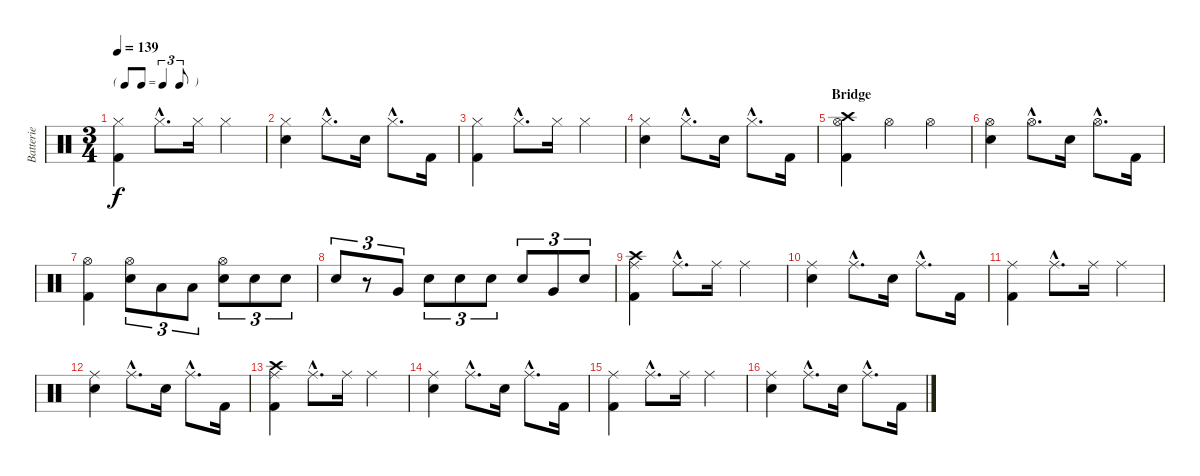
\track ("Batterie" "Batterie") {instrument percussion}
\staff {score}
\articulation defaults
\ts (3 4)
\tf triplet8th
\tempo 139
\clef neutral
\ks c
("Hi-Hat (closed)" "Kick (hit) 2").4{dy f} "Hi-Hat (closed)"{hac}.8{d} "Hi-Hat (closed)".16 "Hi-Hat (closed)".4 |
("Hi-Hat (closed)" "Snare (hit) 2").4 "Hi-Hat (closed)"{hac}.8{d} "Snare (hit) 2".16 "Hi-Hat (closed)"{hac}.8{d} "Kick (hit) 2".16 |
("Hi-Hat (closed)" "Kick (hit) 2").4 "Hi-Hat (closed)"{hac}.8{d} "Hi-Hat (closed)".16 "Hi-Hat (closed)".4 |
("Hi-Hat (closed)" "Snare (hit) 2").4 "Hi-Hat (closed)"{hac}.8{d} "Snare (hit) 2".16 "Hi-Hat (closed)"{hac}.8{d} "Kick (hit) 2".16 |
\section ("" "Bridge")
("Crash high (hit)" "Hi-Hat (open)" "Kick (hit) 2").4 "Hi-Hat (open)".4 "Hi-Hat (open)".4 |
("Hi-Hat (open)" "Snare (hit) 2").4 "Hi-Hat (open)"{hac}.8{d} "Snare (hit) 2".16 "Hi-Hat (open)"{hac}.8{d} "Kick (hit) 2".16 |
("Hi-Hat (open)" "Kick (hit) 2").4 ("Hi-Hat (open)" "Snare (hit) 2").8{tu (3 2)} "Low Floor Tom (hit)".8{tu (3 2)} "Low Tom (hit)".8{tu (3 2)} ("Hi-Hat (open)" "Snare (hit) 2").8{tu (3 2)} "Snare (hit) 2".8{tu (3 2)} "Snare (hit) 2".8{tu (3 2)} |
"Snare (hit) 2".8{tu (3 2)} r.8{tu (3 2)} "Very Low Tom (hit)".8{tu (3 2)} "Snare (hit) 2".8{tu (3 2)} "Electric Snare (hit)".8{tu (3 2)} "Snare (hit) 2".8{tu (3 2)} "Snare (hit) 2".8{tu (3 2)} "Very Low Tom (hit)".8{tu (3 2)} "Snare (hit) 2".8{tu (3 2)} |
("Crash high (hit)" "Ride (middle)" "Kick (hit) 2").4 "Ride (middle)"{hac}.8{d} "Ride (middle)".16 "Ride (middle)".4 |
("Ride (middle)" "Snare (hit) 2").4 "Ride (middle)"{hac}.8{d} "Snare (hit) 2".16 "Ride (middle)"{hac}.8{d} "Kick (hit) 2".16 |
("Ride (middle)" "Kick (hit) 2").4 "Ride (middle)"{hac}.8{d} "Ride (middle)".16 "Ride (middle)".4 |
("Ride (middle)" "Snare (hit) 2").4 "Ride (middle)"{hac}.8{d} "Snare (hit) 2".16 "Ride (middle)"{hac}.8{d} "Kick (hit) 2".16 |
("Crash high (hit)" "Ride (middle)" "Kick (hit) 2").4 "Ride (middle)"{hac}.8{d} "Ride (middle)".16 "Ride (middle)".4 |
("Ride (middle)" "Snare (hit) 2").4 "Ride (middle)"{hac}.8{d} "Snare (hit) 2".16 "Ride (middle)"{hac}.8{d} "Kick (hit) 2".16 |
("Ride (middle)" "Kick (hit) 2").4 "Ride (middle)"{hac}.8{d} "Ride (middle)".16 "Ride (middle)".4 |
("Ride (middle)" "Snare (hit) 2").4 "Ride (middle)"{hac}.8{d} "Snare (hit) 2".16 "Ride (middle)"{hac}.8{d} "Kick (hit) 2".16
